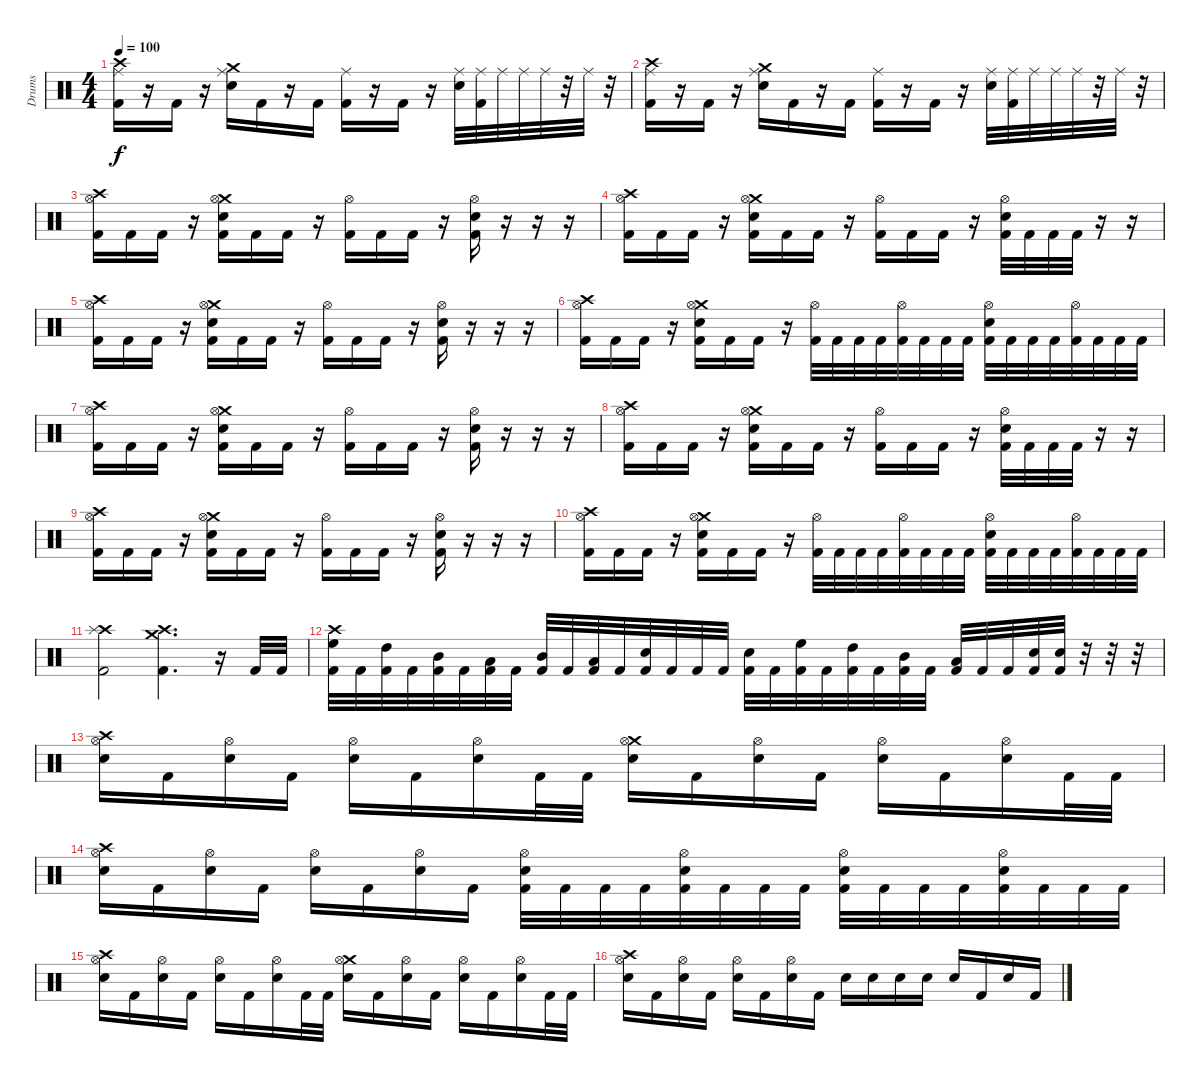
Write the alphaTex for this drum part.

\track ("Drums" "Drums") {instrument percussion}
\staff {score}
\articulation defaults
\ts (4 4)
\tempo 100
\clef neutral
\ks c
("Crash high (hit)" "Ride (middle)" "Kick (hit) 2").16{dy f} r.16 "Kick (hit) 2".16 r.16 ("Crash medium (hit)" "Ride (middle)" "Snare (hit) 2").16 "Kick (hit) 2".16 r.16 "Kick (hit) 2".16 ("Ride (middle)" "Kick (hit) 2").16 r.16 "Kick (hit) 2".16 r.16 ("Ride (middle)" "Snare (hit) 2").32 ("Ride (middle)" "Kick (hit) 2").32 "Ride (middle)".32 "Ride (middle)".32 "Ride (middle)".32 r.32 "Ride (middle)".32 r.32 |
("Crash high (hit)" "Ride (middle)" "Kick (hit) 2").16 r.16 "Kick (hit) 2".16 r.16 ("Crash medium (hit)" "Ride (middle)" "Snare (hit) 2").16 "Kick (hit) 2".16 r.16 "Kick (hit) 2".16 ("Ride (middle)" "Kick (hit) 2").16 r.16 "Kick (hit) 2".16 r.16 ("Ride (middle)" "Snare (hit) 2").32 ("Ride (middle)" "Kick (hit) 2").32 "Ride (middle)".32 "Ride (middle)".32 "Ride (middle)".32 r.32 "Ride (middle)".32 r.32 |
("Crash high (hit)" "Hi-Hat (open)" "Kick (hit) 2").16 "Kick (hit) 2".16 "Kick (hit) 2".16 r.16 ("Crash medium (hit)" "Hi-Hat (open)" "Snare (hit) 2" "Kick (hit) 2").16 "Kick (hit) 2".16 "Kick (hit) 2".16 r.16 ("Hi-Hat (open)" "Kick (hit) 2").16 "Kick (hit) 2".16 "Kick (hit) 2".16 r.16 ("Hi-Hat (open)" "Snare (hit) 2" "Kick (hit) 2").16 r.16 r.16 r.16 |
("Crash high (hit)" "Hi-Hat (open)" "Kick (hit) 2").16 "Kick (hit) 2".16 "Kick (hit) 2".16 r.16 ("Crash medium (hit)" "Hi-Hat (open)" "Snare (hit) 2" "Kick (hit) 2").16 "Kick (hit) 2".16 "Kick (hit) 2".16 r.16 ("Hi-Hat (open)" "Kick (hit) 2").16 "Kick (hit) 2".16 "Kick (hit) 2".16 r.16 ("Hi-Hat (open)" "Snare (hit) 2" "Kick (hit) 2").32 "Kick (hit) 2".32 "Kick (hit) 2".32 "Kick (hit) 2".32 r.16 r.16 |
("Crash high (hit)" "Hi-Hat (open)" "Kick (hit) 2").16 "Kick (hit) 2".16 "Kick (hit) 2".16 r.16 ("Crash medium (hit)" "Hi-Hat (open)" "Snare (hit) 2" "Kick (hit) 2").16 "Kick (hit) 2".16 "Kick (hit) 2".16 r.16 ("Hi-Hat (open)" "Kick (hit) 2").16 "Kick (hit) 2".16 "Kick (hit) 2".16 r.16 ("Hi-Hat (open)" "Snare (hit) 2" "Kick (hit) 2").16 r.16 r.16 r.16 |
("Crash high (hit)" "Hi-Hat (open)" "Kick (hit) 2").16 "Kick (hit) 2".16 "Kick (hit) 2".16 r.16 ("Crash medium (hit)" "Hi-Hat (open)" "Snare (hit) 2" "Kick (hit) 2").16 "Kick (hit) 2".16 "Kick (hit) 2".16 r.16 ("Hi-Hat (open)" "Kick (hit) 2").32 "Kick (hit) 2".32 "Kick (hit) 2".32 "Kick (hit) 2".32 ("Hi-Hat (open)" "Kick (hit) 2").32 "Kick (hit) 2".32 "Kick (hit) 2".32 "Kick (hit) 2".32 ("Hi-Hat (open)" "Snare (hit) 2" "Kick (hit) 2").32 "Kick (hit) 2".32 "Kick (hit) 2".32 "Kick (hit) 2".32 ("Hi-Hat (open)" "Kick (hit) 2").32 "Kick (hit) 2".32 "Kick (hit) 2".32 "Kick (hit) 2".32 |
("Crash high (hit)" "Hi-Hat (open)" "Kick (hit) 2").16 "Kick (hit) 2".16 "Kick (hit) 2".16 r.16 ("Crash medium (hit)" "Hi-Hat (open)" "Snare (hit) 2" "Kick (hit) 2").16 "Kick (hit) 2".16 "Kick (hit) 2".16 r.16 ("Hi-Hat (open)" "Kick (hit) 2").16 "Kick (hit) 2".16 "Kick (hit) 2".16 r.16 ("Hi-Hat (open)" "Snare (hit) 2" "Kick (hit) 2").16 r.16 r.16 r.16 |
("Crash high (hit)" "Hi-Hat (open)" "Kick (hit) 2").16 "Kick (hit) 2".16 "Kick (hit) 2".16 r.16 ("Crash medium (hit)" "Hi-Hat (open)" "Snare (hit) 2" "Kick (hit) 2").16 "Kick (hit) 2".16 "Kick (hit) 2".16 r.16 ("Hi-Hat (open)" "Kick (hit) 2").16 "Kick (hit) 2".16 "Kick (hit) 2".16 r.16 ("Hi-Hat (open)" "Snare (hit) 2" "Kick (hit) 2").32 "Kick (hit) 2".32 "Kick (hit) 2".32 "Kick (hit) 2".32 r.16 r.16 |
("Crash high (hit)" "Hi-Hat (open)" "Kick (hit) 2").16 "Kick (hit) 2".16 "Kick (hit) 2".16 r.16 ("Crash medium (hit)" "Hi-Hat (open)" "Snare (hit) 2" "Kick (hit) 2").16 "Kick (hit) 2".16 "Kick (hit) 2".16 r.16 ("Hi-Hat (open)" "Kick (hit) 2").16 "Kick (hit) 2".16 "Kick (hit) 2".16 r.16 ("Hi-Hat (open)" "Snare (hit) 2" "Kick (hit) 2").16 r.16 r.16 r.16 |
("Crash high (hit)" "Hi-Hat (open)" "Kick (hit) 2").16 "Kick (hit) 2".16 "Kick (hit) 2".16 r.16 ("Crash medium (hit)" "Hi-Hat (open)" "Snare (hit) 2" "Kick (hit) 2").16 "Kick (hit) 2".16 "Kick (hit) 2".16 r.16 ("Hi-Hat (open)" "Kick (hit) 2").32 "Kick (hit) 2".32 "Kick (hit) 2".32 "Kick (hit) 2".32 ("Hi-Hat (open)" "Kick (hit) 2").32 "Kick (hit) 2".32 "Kick (hit) 2".32 "Kick (hit) 2".32 ("Hi-Hat (open)" "Snare (hit) 2" "Kick (hit) 2").32 "Kick (hit) 2".32 "Kick (hit) 2".32 "Kick (hit) 2".32 ("Hi-Hat (open)" "Kick (hit) 2").32 "Kick (hit) 2".32 "Kick (hit) 2".32 "Kick (hit) 2".32 |
("Crash high (hit)" "Splash (hit)" "Kick (hit) 2").2{balance 0} ("Crash high (hit)" "Crash medium (hit)" "Kick (hit) 2").4{d balance 16} r.16 "Kick (hit) 2".32{volume 16 balance 8} "Kick (hit) 2".32 |
("Crash high (hit)" "High Floor Tom (hit)" "Kick (hit) 2").32 "Kick (hit) 2".32 ("High Tom (hit)" "Kick (hit) 2").32 "Kick (hit) 2".32 ("Mid Tom (hit)" "Kick (hit) 2").32 "Kick (hit) 2".32 ("Low Tom (hit)" "Kick (hit) 2").32 "Kick (hit) 2".32 ("Mid Tom (hit)" "Kick (hit) 2").32 "Kick (hit) 2".32 ("Low Tom (hit)" "Kick (hit) 2").32 "Kick (hit) 2".32 ("Snare (hit) 2" "Kick (hit) 2").32 "Kick (hit) 2".32 "Kick (hit) 2".32 "Kick (hit) 2".32 ("Snare (hit) 2" "Kick (hit) 2").32 "Kick (hit) 2".32 ("High Floor Tom (hit)" "Kick (hit) 2").32 "Kick (hit) 2".32 ("High Tom (hit)" "Kick (hit) 2").32 "Kick (hit) 2".32 ("Mid Tom (hit)" "Kick (hit) 2").32 "Kick (hit) 2".32 ("Low Tom (hit)" "Kick (hit) 2").32 "Kick (hit) 2".32 "Kick (hit) 2".32 ("Snare (hit) 2" "Kick (hit) 2").32 ("Snare (hit) 2" "Kick (hit) 2").32 r.32 r.32 r.32 |
("Crash high (hit)" "Hi-Hat (open)" "Snare (hit) 2").16 "Kick (hit) 2".16 ("Hi-Hat (open)" "Snare (hit) 2").16 "Kick (hit) 2".16 ("Hi-Hat (open)" "Snare (hit) 2").16 "Kick (hit) 2".16 ("Hi-Hat (open)" "Snare (hit) 2").16 "Kick (hit) 2".32 "Kick (hit) 2".32 ("Crash medium (hit)" "Hi-Hat (open)" "Snare (hit) 2").16 "Kick (hit) 2".16 ("Hi-Hat (open)" "Snare (hit) 2").16 "Kick (hit) 2".16 ("Hi-Hat (open)" "Snare (hit) 2").16 "Kick (hit) 2".16 ("Hi-Hat (open)" "Snare (hit) 2").16 "Kick (hit) 2".32 "Kick (hit) 2".32 |
("Crash high (hit)" "Hi-Hat (open)" "Snare (hit) 2").16 "Kick (hit) 2".16 ("Hi-Hat (open)" "Snare (hit) 2").16 "Kick (hit) 2".16 ("Hi-Hat (open)" "Snare (hit) 2").16 "Kick (hit) 2".16 ("Hi-Hat (open)" "Snare (hit) 2").16 "Kick (hit) 2".16 ("Hi-Hat (open)" "Snare (hit) 2" "Kick (hit) 2").32 "Kick (hit) 2".32 "Kick (hit) 2".32 "Kick (hit) 2".32 ("Hi-Hat (open)" "Snare (hit) 2" "Kick (hit) 2").32 "Kick (hit) 2".32 "Kick (hit) 2".32 "Kick (hit) 2".32 ("Hi-Hat (open)" "Snare (hit) 2" "Kick (hit) 2").32 "Kick (hit) 2".32 "Kick (hit) 2".32 "Kick (hit) 2".32 ("Hi-Hat (open)" "Snare (hit) 2" "Kick (hit) 2").32 "Kick (hit) 2".32 "Kick (hit) 2".32 "Kick (hit) 2".32 |
("Crash high (hit)" "Hi-Hat (open)" "Snare (hit) 2").16 "Kick (hit) 2".16 ("Hi-Hat (open)" "Snare (hit) 2").16 "Kick (hit) 2".16 ("Hi-Hat (open)" "Snare (hit) 2").16 "Kick (hit) 2".16 ("Hi-Hat (open)" "Snare (hit) 2").16 "Kick (hit) 2".32 "Kick (hit) 2".32 ("Crash medium (hit)" "Hi-Hat (open)" "Snare (hit) 2").16 "Kick (hit) 2".16 ("Hi-Hat (open)" "Snare (hit) 2").16 "Kick (hit) 2".16 ("Hi-Hat (open)" "Snare (hit) 2").16 "Kick (hit) 2".16 ("Hi-Hat (open)" "Snare (hit) 2").16 "Kick (hit) 2".32 "Kick (hit) 2".32 |
("Crash high (hit)" "Hi-Hat (open)" "Snare (hit) 2").16 "Kick (hit) 2".16 ("Hi-Hat (open)" "Snare (hit) 2").16 "Kick (hit) 2".16 ("Hi-Hat (open)" "Snare (hit) 2").16 "Kick (hit) 2".16 ("Hi-Hat (open)" "Snare (hit) 2").16 "Kick (hit) 2".16 "Snare (hit) 2".16 "Snare (hit) 2".16 "Snare (hit) 2".16 "Snare (hit) 2".16 "Snare (hit) 2".16 "Kick (hit) 2".16 "Snare (hit) 2".16 "Kick (hit) 2".16
